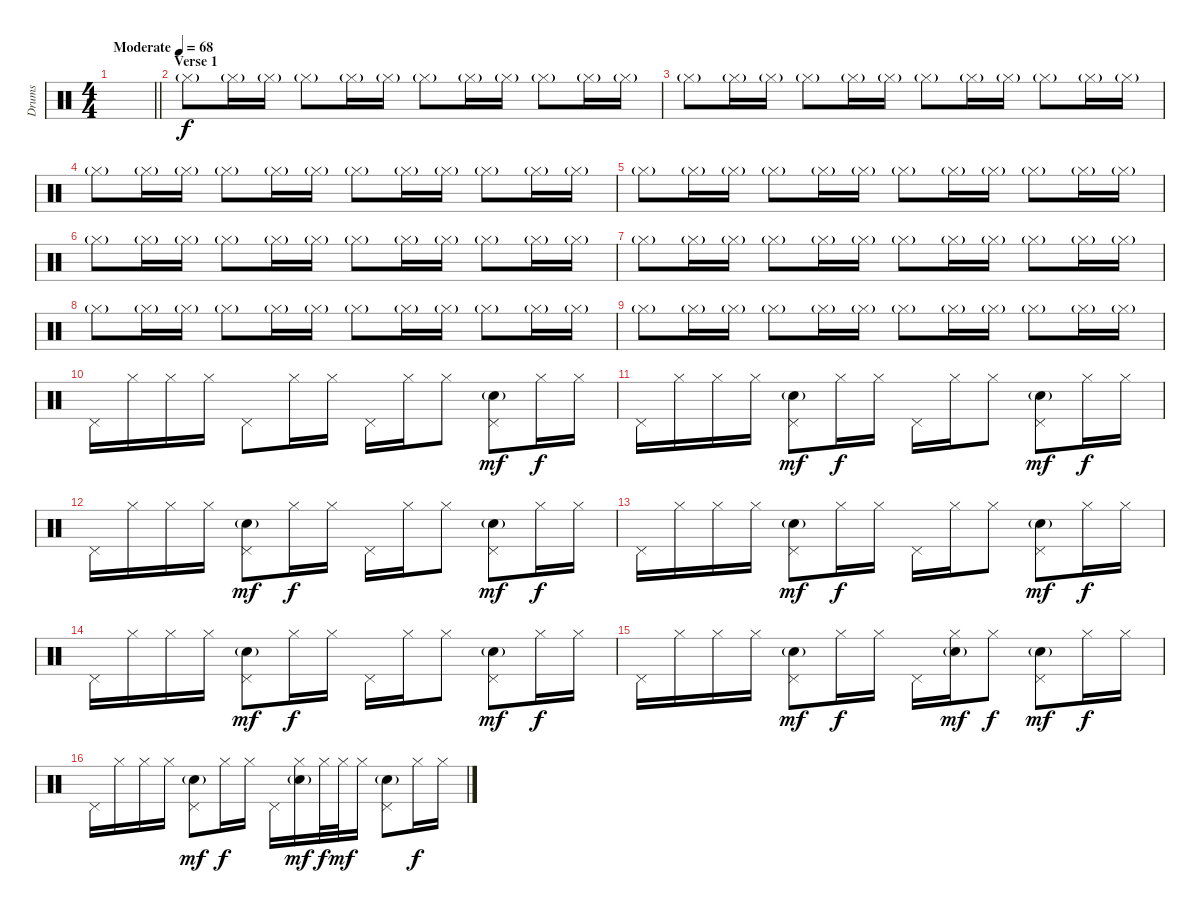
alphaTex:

\track ("Drums" "Drums") {instrument percussion}
\staff {score}
\articulation defaults
\ts (4 4)
\tempo (68 "Moderate")
\clef neutral
\barLineRight lightlight
\ks c
|
\section ("" "Verse 1")
"Hi-Hat (closed)"{g}.8{volume 5} "Hi-Hat (closed)"{g}.16 "Hi-Hat (closed)"{g}.16 "Hi-Hat (closed)"{g}.8 "Hi-Hat (closed)"{g}.16 "Hi-Hat (closed)"{g}.16 "Hi-Hat (closed)"{g}.8 "Hi-Hat (closed)"{g}.16 "Hi-Hat (closed)"{g}.16 "Hi-Hat (closed)"{g}.8 "Hi-Hat (closed)"{g}.16 "Hi-Hat (closed)"{g}.16 |
"Hi-Hat (closed)"{g}.8 "Hi-Hat (closed)"{g}.16 "Hi-Hat (closed)"{g}.16 "Hi-Hat (closed)"{g}.8 "Hi-Hat (closed)"{g}.16 "Hi-Hat (closed)"{g}.16 "Hi-Hat (closed)"{g}.8 "Hi-Hat (closed)"{g}.16 "Hi-Hat (closed)"{g}.16 "Hi-Hat (closed)"{g}.8 "Hi-Hat (closed)"{g}.16 "Hi-Hat (closed)"{g}.16 |
"Hi-Hat (closed)"{g}.8 "Hi-Hat (closed)"{g}.16 "Hi-Hat (closed)"{g}.16 "Hi-Hat (closed)"{g}.8 "Hi-Hat (closed)"{g}.16 "Hi-Hat (closed)"{g}.16 "Hi-Hat (closed)"{g}.8 "Hi-Hat (closed)"{g}.16 "Hi-Hat (closed)"{g}.16 "Hi-Hat (closed)"{g}.8 "Hi-Hat (closed)"{g}.16 "Hi-Hat (closed)"{g}.16 |
"Hi-Hat (closed)"{g}.8 "Hi-Hat (closed)"{g}.16 "Hi-Hat (closed)"{g}.16 "Hi-Hat (closed)"{g}.8 "Hi-Hat (closed)"{g}.16 "Hi-Hat (closed)"{g}.16 "Hi-Hat (closed)"{g}.8 "Hi-Hat (closed)"{g}.16 "Hi-Hat (closed)"{g}.16 "Hi-Hat (closed)"{g}.8 "Hi-Hat (closed)"{g}.16 "Hi-Hat (closed)"{g}.16 |
"Hi-Hat (closed)"{g}.8 "Hi-Hat (closed)"{g}.16 "Hi-Hat (closed)"{g}.16 "Hi-Hat (closed)"{g}.8 "Hi-Hat (closed)"{g}.16 "Hi-Hat (closed)"{g}.16 "Hi-Hat (closed)"{g}.8 "Hi-Hat (closed)"{g}.16 "Hi-Hat (closed)"{g}.16 "Hi-Hat (closed)"{g}.8 "Hi-Hat (closed)"{g}.16 "Hi-Hat (closed)"{g}.16 |
"Hi-Hat (closed)"{g}.8 "Hi-Hat (closed)"{g}.16 "Hi-Hat (closed)"{g}.16 "Hi-Hat (closed)"{g}.8 "Hi-Hat (closed)"{g}.16 "Hi-Hat (closed)"{g}.16 "Hi-Hat (closed)"{g}.8 "Hi-Hat (closed)"{g}.16 "Hi-Hat (closed)"{g}.16 "Hi-Hat (closed)"{g}.8 "Hi-Hat (closed)"{g}.16 "Hi-Hat (closed)"{g}.16 |
"Hi-Hat (closed)"{g}.8 "Hi-Hat (closed)"{g}.16 "Hi-Hat (closed)"{g}.16 "Hi-Hat (closed)"{g}.8 "Hi-Hat (closed)"{g}.16 "Hi-Hat (closed)"{g}.16 "Hi-Hat (closed)"{g}.8 "Hi-Hat (closed)"{g}.16 "Hi-Hat (closed)"{g}.16 "Hi-Hat (closed)"{g}.8 "Hi-Hat (closed)"{g}.16 "Hi-Hat (closed)"{g}.16 |
"Hi-Hat (closed)"{g}.8 "Hi-Hat (closed)"{g}.16 "Hi-Hat (closed)"{g}.16 "Hi-Hat (closed)"{g}.8 "Hi-Hat (closed)"{g}.16 "Hi-Hat (closed)"{g}.16 "Hi-Hat (closed)"{g}.8 "Hi-Hat (closed)"{g}.16 "Hi-Hat (closed)"{g}.16 "Hi-Hat (closed)"{g}.8 "Hi-Hat (closed)"{g}.16 "Hi-Hat (closed)"{g}.16 |
"Pedal Hi-Hat (hit)".16{dy f volume 6} "Hi-Hat (closed)".16 "Hi-Hat (closed)".16 "Hi-Hat (closed)".16 "Pedal Hi-Hat (hit)".8 "Hi-Hat (closed)".16 "Hi-Hat (closed)".16 "Pedal Hi-Hat (hit)".16 "Hi-Hat (closed)".16 "Hi-Hat (closed)".8 ("Pedal Hi-Hat (hit)" "Snare (hit) 2"{g}).8{dy mf} "Hi-Hat (closed)".16{dy f} "Hi-Hat (closed)".16 |
"Pedal Hi-Hat (hit)".16 "Hi-Hat (closed)".16 "Hi-Hat (closed)".16 "Hi-Hat (closed)".16 ("Pedal Hi-Hat (hit)" "Snare (hit) 2"{g}).8{dy mf} "Hi-Hat (closed)".16{dy f} "Hi-Hat (closed)".16 "Pedal Hi-Hat (hit)".16 "Hi-Hat (closed)".16 "Hi-Hat (closed)".8 ("Pedal Hi-Hat (hit)" "Snare (hit) 2"{g}).8{dy mf} "Hi-Hat (closed)".16{dy f} "Hi-Hat (closed)".16 |
"Pedal Hi-Hat (hit)".16 "Hi-Hat (closed)".16 "Hi-Hat (closed)".16 "Hi-Hat (closed)".16 ("Pedal Hi-Hat (hit)" "Snare (hit) 2"{g}).8{dy mf} "Hi-Hat (closed)".16{dy f} "Hi-Hat (closed)".16 "Pedal Hi-Hat (hit)".16 "Hi-Hat (closed)".16 "Hi-Hat (closed)".8 ("Pedal Hi-Hat (hit)" "Snare (hit) 2"{g}).8{dy mf} "Hi-Hat (closed)".16{dy f} "Hi-Hat (closed)".16 |
"Pedal Hi-Hat (hit)".16 "Hi-Hat (closed)".16 "Hi-Hat (closed)".16 "Hi-Hat (closed)".16 ("Pedal Hi-Hat (hit)" "Snare (hit) 2"{g}).8{dy mf} "Hi-Hat (closed)".16{dy f} "Hi-Hat (closed)".16 "Pedal Hi-Hat (hit)".16 "Hi-Hat (closed)".16 "Hi-Hat (closed)".8 ("Pedal Hi-Hat (hit)" "Snare (hit) 2"{g}).8{dy mf} "Hi-Hat (closed)".16{dy f} "Hi-Hat (closed)".16 |
"Pedal Hi-Hat (hit)".16 "Hi-Hat (closed)".16 "Hi-Hat (closed)".16 "Hi-Hat (closed)".16 ("Pedal Hi-Hat (hit)" "Snare (hit) 2"{g}).8{dy mf} "Hi-Hat (closed)".16{dy f} "Hi-Hat (closed)".16 "Pedal Hi-Hat (hit)".16 "Hi-Hat (closed)".16 "Hi-Hat (closed)".8 ("Pedal Hi-Hat (hit)" "Snare (hit) 2"{g}).8{dy mf} "Hi-Hat (closed)".16{dy f} "Hi-Hat (closed)".16 |
"Pedal Hi-Hat (hit)".16 "Hi-Hat (closed)".16 "Hi-Hat (closed)".16 "Hi-Hat (closed)".16 ("Pedal Hi-Hat (hit)" "Snare (hit) 2"{g}).8{dy mf} "Hi-Hat (closed)".16{dy f} "Hi-Hat (closed)".16 "Pedal Hi-Hat (hit)".16 ("Hi-Hat (closed)" "Snare (hit) 2"{g}).16{dy mf} "Hi-Hat (closed)".8{dy f} ("Pedal Hi-Hat (hit)" "Snare (hit) 2"{g}).8{dy mf} "Hi-Hat (closed)".16{dy f} "Hi-Hat (closed)".16 |
"Pedal Hi-Hat (hit)".16 "Hi-Hat (closed)".16 "Hi-Hat (closed)".16 "Hi-Hat (closed)".16 ("Pedal Hi-Hat (hit)" "Snare (hit) 2"{g}).8{dy mf} "Hi-Hat (closed)".16{dy f} "Hi-Hat (closed)".16 "Pedal Hi-Hat (hit)".16 ("Hi-Hat (closed)" "Snare (hit) 2"{g}).16{dy mf} "Hi-Hat (closed)".32{dy f} "Hi-Hat (closed)".32{dy mf} "Hi-Hat (closed)".16 ("Pedal Hi-Hat (hit)" "Snare (hit) 2"{g}).8 "Hi-Hat (closed)".16{dy f} "Hi-Hat (closed)".16
